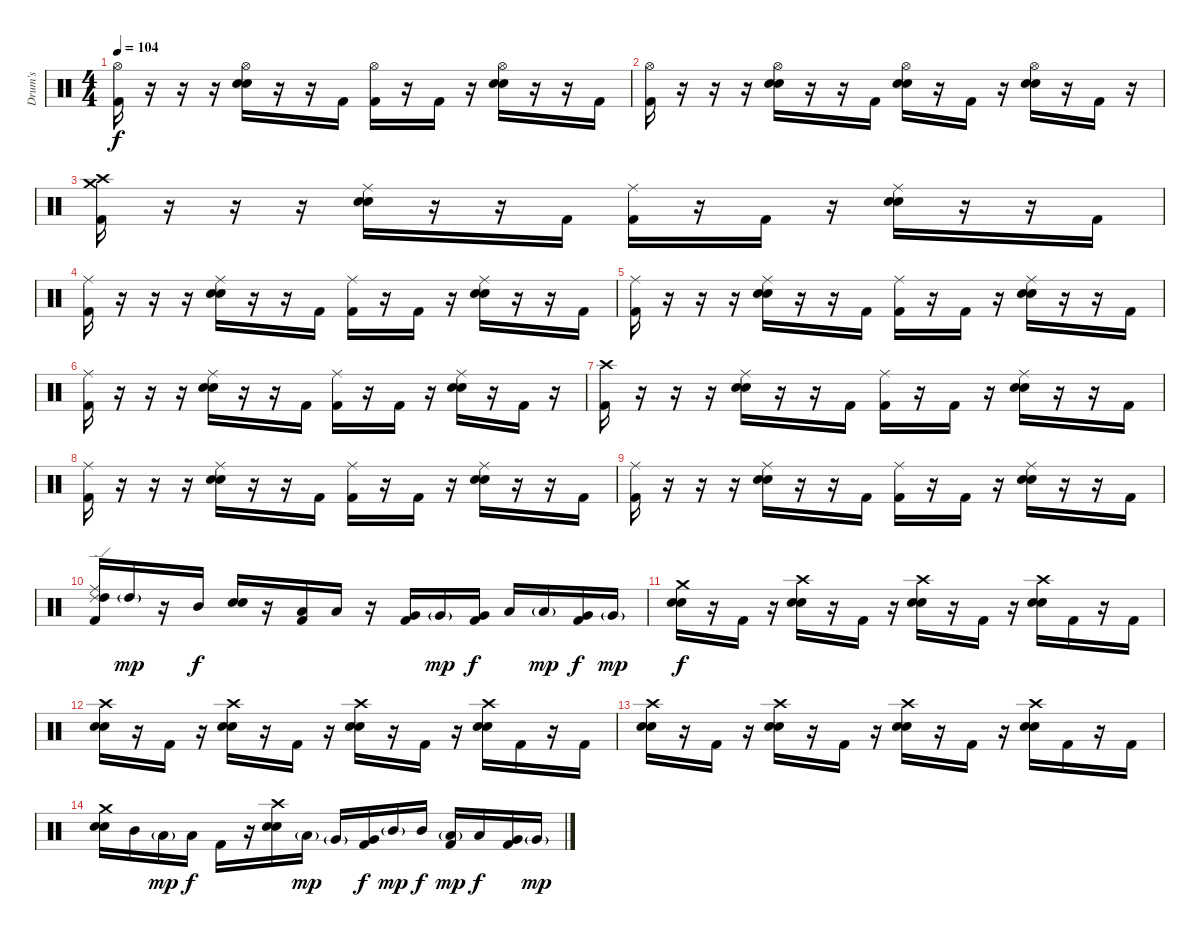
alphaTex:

\track ("Drum's" "Drum's") {instrument percussion}
\staff {score}
\articulation defaults
\ts (4 4)
\tempo 104
\clef neutral
\ks c
("Hi-Hat (open)" "Kick (hit) 2").16{dy f} r.16 r.16 r.16 ("Hi-Hat (open)" "Electric Snare (hit)" "Snare (hit) 2").16 r.16 r.16 "Kick (hit) 2".16 ("Hi-Hat (open)" "Kick (hit) 2").16 r.16 "Kick (hit) 2".16 r.16 ("Hi-Hat (open)" "Electric Snare (hit)" "Snare (hit) 2").16 r.16 r.16 "Kick (hit) 2".16 |
("Hi-Hat (open)" "Kick (hit) 2").16 r.16 r.16 r.16 ("Hi-Hat (open)" "Electric Snare (hit)" "Snare (hit) 2").16 r.16 r.16 "Kick (hit) 2".16 ("Hi-Hat (open)" "Electric Snare (hit)" "Snare (hit) 2").16 r.16 "Kick (hit) 2".16 r.16 ("Hi-Hat (open)" "Electric Snare (hit)" "Snare (hit) 2").16 r.16 "Kick (hit) 2".16 r.16 |
("Crash medium (hit)" "Crash high (hit)" "Kick (hit) 2").16 r.16 r.16 r.16 ("Ride (middle)" "Electric Snare (hit)" "Snare (hit) 2").16 r.16 r.16 "Kick (hit) 2".16 ("Ride (middle)" "Kick (hit) 2").16 r.16 "Kick (hit) 2".16 r.16 ("Ride (middle)" "Electric Snare (hit)" "Snare (hit) 2").16 r.16 r.16 "Kick (hit) 2".16 |
("Ride (middle)" "Kick (hit) 2").16 r.16 r.16 r.16 ("Ride (middle)" "Electric Snare (hit)" "Snare (hit) 2").16 r.16 r.16 "Kick (hit) 2".16 ("Ride (middle)" "Kick (hit) 2").16 r.16 "Kick (hit) 2".16 r.16 ("Ride (middle)" "Electric Snare (hit)" "Snare (hit) 2").16 r.16 r.16 "Kick (hit) 2".16 |
("Ride (middle)" "Kick (hit) 2").16 r.16 r.16 r.16 ("Ride (middle)" "Electric Snare (hit)" "Snare (hit) 2").16 r.16 r.16 "Kick (hit) 2".16 ("Ride (middle)" "Kick (hit) 2").16 r.16 "Kick (hit) 2".16 r.16 ("Ride (middle)" "Electric Snare (hit)" "Snare (hit) 2").16 r.16 r.16 "Kick (hit) 2".16 |
("Ride (middle)" "Kick (hit) 2").16 r.16 r.16 r.16 ("Ride (middle)" "Electric Snare (hit)" "Snare (hit) 2").16 r.16 r.16 "Kick (hit) 2".16 ("Ride (middle)" "Kick (hit) 2").16 r.16 "Kick (hit) 2".16 r.16 ("Ride (middle)" "Electric Snare (hit)" "Snare (hit) 2").16 r.16 "Kick (hit) 2".16 r.16 |
("Crash high (hit)" "Kick (hit) 2").16 r.16 r.16 r.16 ("Ride (middle)" "Electric Snare (hit)" "Snare (hit) 2").16 r.16 r.16 "Kick (hit) 2".16 ("Ride (middle)" "Kick (hit) 2").16 r.16 "Kick (hit) 2".16 r.16 ("Ride (middle)" "Electric Snare (hit)" "Snare (hit) 2").16 r.16 r.16 "Kick (hit) 2".16 |
("Ride (middle)" "Kick (hit) 2").16 r.16 r.16 r.16 ("Ride (middle)" "Electric Snare (hit)" "Snare (hit) 2").16 r.16 r.16 "Kick (hit) 2".16 ("Ride (middle)" "Kick (hit) 2").16 r.16 "Kick (hit) 2".16 r.16 ("Ride (middle)" "Electric Snare (hit)" "Snare (hit) 2").16 r.16 r.16 "Kick (hit) 2".16 |
("Ride (middle)" "Kick (hit) 2").16 r.16 r.16 r.16 ("Ride (middle)" "Electric Snare (hit)" "Snare (hit) 2").16 r.16 r.16 "Kick (hit) 2".16 ("Ride (middle)" "Kick (hit) 2").16 r.16 "Kick (hit) 2".16 r.16 ("Ride (middle)" "Electric Snare (hit)" "Snare (hit) 2").16 r.16 r.16 "Kick (hit) 2".16 |
("Ride (edge) 2" "Ride (middle)" "High Tom (hit)" "Kick (hit) 2").16 "High Tom (hit)"{g}.16{dy mp} r.16 "Mid Tom (hit)".16{dy f} ("Electric Snare (hit)" "Snare (hit) 2").16 r.16 ("Low Tom (hit)" "Kick (hit) 2").16 "Low Tom (hit)".16 r.16 ("Very Low Tom (hit)" "Kick (hit) 2").16 "Very Low Tom (hit)"{g}.16{dy mp} ("Very Low Tom (hit)" "Kick (hit) 2").16{dy f} "Low Tom (hit)".16 "Low Tom (hit)"{g}.16{dy mp} ("Very Low Tom (hit)" "Kick (hit) 2").16{dy f} "Very Low Tom (hit)"{g}.16{dy mp} |
("Crash medium (hit)" "Electric Snare (hit)" "Snare (hit) 2").16{dy f} r.16 "Kick (hit) 2".16 r.16 ("Crash high (hit)" "Electric Snare (hit)" "Snare (hit) 2").16 r.16 "Kick (hit) 2".16 r.16 ("Crash high (hit)" "Electric Snare (hit)" "Snare (hit) 2").16 r.16 "Kick (hit) 2".16 r.16 ("Crash high (hit)" "Electric Snare (hit)" "Snare (hit) 2").16 "Kick (hit) 2".16 r.16 "Kick (hit) 2".16 |
("Crash high (hit)" "Electric Snare (hit)" "Snare (hit) 2").16 r.16 "Kick (hit) 2".16 r.16 ("Crash high (hit)" "Electric Snare (hit)" "Snare (hit) 2").16 r.16 "Kick (hit) 2".16 r.16 ("Crash high (hit)" "Electric Snare (hit)" "Snare (hit) 2").16 r.16 "Kick (hit) 2".16 r.16 ("Crash high (hit)" "Electric Snare (hit)" "Snare (hit) 2").16 "Kick (hit) 2".16 r.16 "Kick (hit) 2".16 |
("Crash high (hit)" "Electric Snare (hit)" "Snare (hit) 2").16 r.16 "Kick (hit) 2".16 r.16 ("Crash high (hit)" "Electric Snare (hit)" "Snare (hit) 2").16 r.16 "Kick (hit) 2".16 r.16 ("Crash high (hit)" "Electric Snare (hit)" "Snare (hit) 2").16 r.16 "Kick (hit) 2".16 r.16 ("Crash high (hit)" "Electric Snare (hit)" "Snare (hit) 2").16 "Kick (hit) 2".16 r.16 "Kick (hit) 2".16 |
("Crash medium (hit)" "Electric Snare (hit)" "Snare (hit) 2").16 "Mid Tom (hit)".16 "Low Tom (hit)"{g}.16{dy mp} "Low Tom (hit)".16{dy f} "Kick (hit) 2".16 r.16 ("Crash high (hit)" "Electric Snare (hit)" "Snare (hit) 2").16 "Low Tom (hit)"{g}.16{dy mp} "Very Low Tom (hit)"{g}.16 ("Very Low Tom (hit)" "Kick (hit) 2").16{dy f} "Mid Tom (hit)"{g}.16{dy mp} "Mid Tom (hit)".16{dy f} ("Low Tom (hit)"{g} "Kick (hit) 2").16{dy mp} "Low Tom (hit)".16{dy f} ("Very Low Tom (hit)" "Kick (hit) 2").16 "Very Low Tom (hit)"{g}.16{dy mp}
